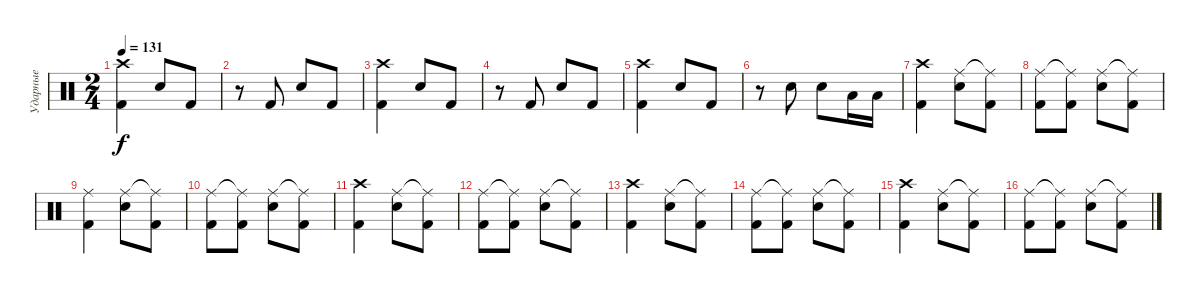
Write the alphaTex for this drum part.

\track ("Ударные" "Ударные") {instrument percussion}
\staff {score}
\articulation defaults
\ts (2 4)
\tempo 131
\clef neutral
\ks c
("Crash high (hit)" "Kick (hit) 2").4{dy f} "Electric Snare (hit)".8 "Kick (hit) 2".8 |
r.8 "Kick (hit) 2".8 "Electric Snare (hit)".8 "Kick (hit) 2".8 |
("Crash high (hit)" "Kick (hit) 2").4 "Electric Snare (hit)".8 "Kick (hit) 2".8 |
r.8 "Kick (hit) 2".8 "Electric Snare (hit)".8 "Kick (hit) 2".8 |
("Crash high (hit)" "Kick (hit) 2").4 "Electric Snare (hit)".8 "Kick (hit) 2".8 |
r.8 "Electric Snare (hit)".8 "Electric Snare (hit)".8 "Low Floor Tom (hit)".16 "Low Floor Tom (hit)".16 |
("Crash high (hit)" "Kick (hit) 2").4 ("Ride (middle)" "Electric Snare (hit)").8 ("Ride (middle)"{t} "Kick (hit) 2").8 |
("Ride (middle)" "Kick (hit) 2").8 ("Ride (middle)"{t} "Kick (hit) 2").8 ("Ride (middle)" "Electric Snare (hit)").8 ("Ride (middle)"{t} "Kick (hit) 2").8 |
("Ride (middle)" "Kick (hit) 2").4 ("Ride (middle)" "Electric Snare (hit)").8 ("Ride (middle)"{t} "Kick (hit) 2").8 |
("Ride (middle)" "Kick (hit) 2").8 ("Ride (middle)"{t} "Kick (hit) 2").8 ("Ride (middle)" "Electric Snare (hit)").8 ("Ride (middle)"{t} "Kick (hit) 2").8 |
("Crash high (hit)" "Kick (hit) 2").4 ("Ride (middle)" "Electric Snare (hit)").8 ("Ride (middle)"{t} "Kick (hit) 2").8 |
("Ride (middle)" "Kick (hit) 2").8 ("Ride (middle)"{t} "Kick (hit) 2").8 ("Ride (middle)" "Electric Snare (hit)").8 ("Ride (middle)"{t} "Kick (hit) 2").8 |
("Crash high (hit)" "Kick (hit) 2").4 ("Ride (middle)" "Electric Snare (hit)").8 ("Ride (middle)"{t} "Kick (hit) 2").8 |
("Ride (middle)" "Kick (hit) 2").8 ("Ride (middle)"{t} "Kick (hit) 2").8 ("Ride (middle)" "Electric Snare (hit)").8 ("Ride (middle)"{t} "Kick (hit) 2").8 |
("Crash high (hit)" "Kick (hit) 2").4 ("Ride (middle)" "Electric Snare (hit)").8 ("Ride (middle)"{t} "Kick (hit) 2").8 |
("Ride (middle)" "Kick (hit) 2").8 ("Ride (middle)"{t} "Kick (hit) 2").8 ("Ride (middle)" "Electric Snare (hit)").8 ("Ride (middle)"{t} "Kick (hit) 2").8
